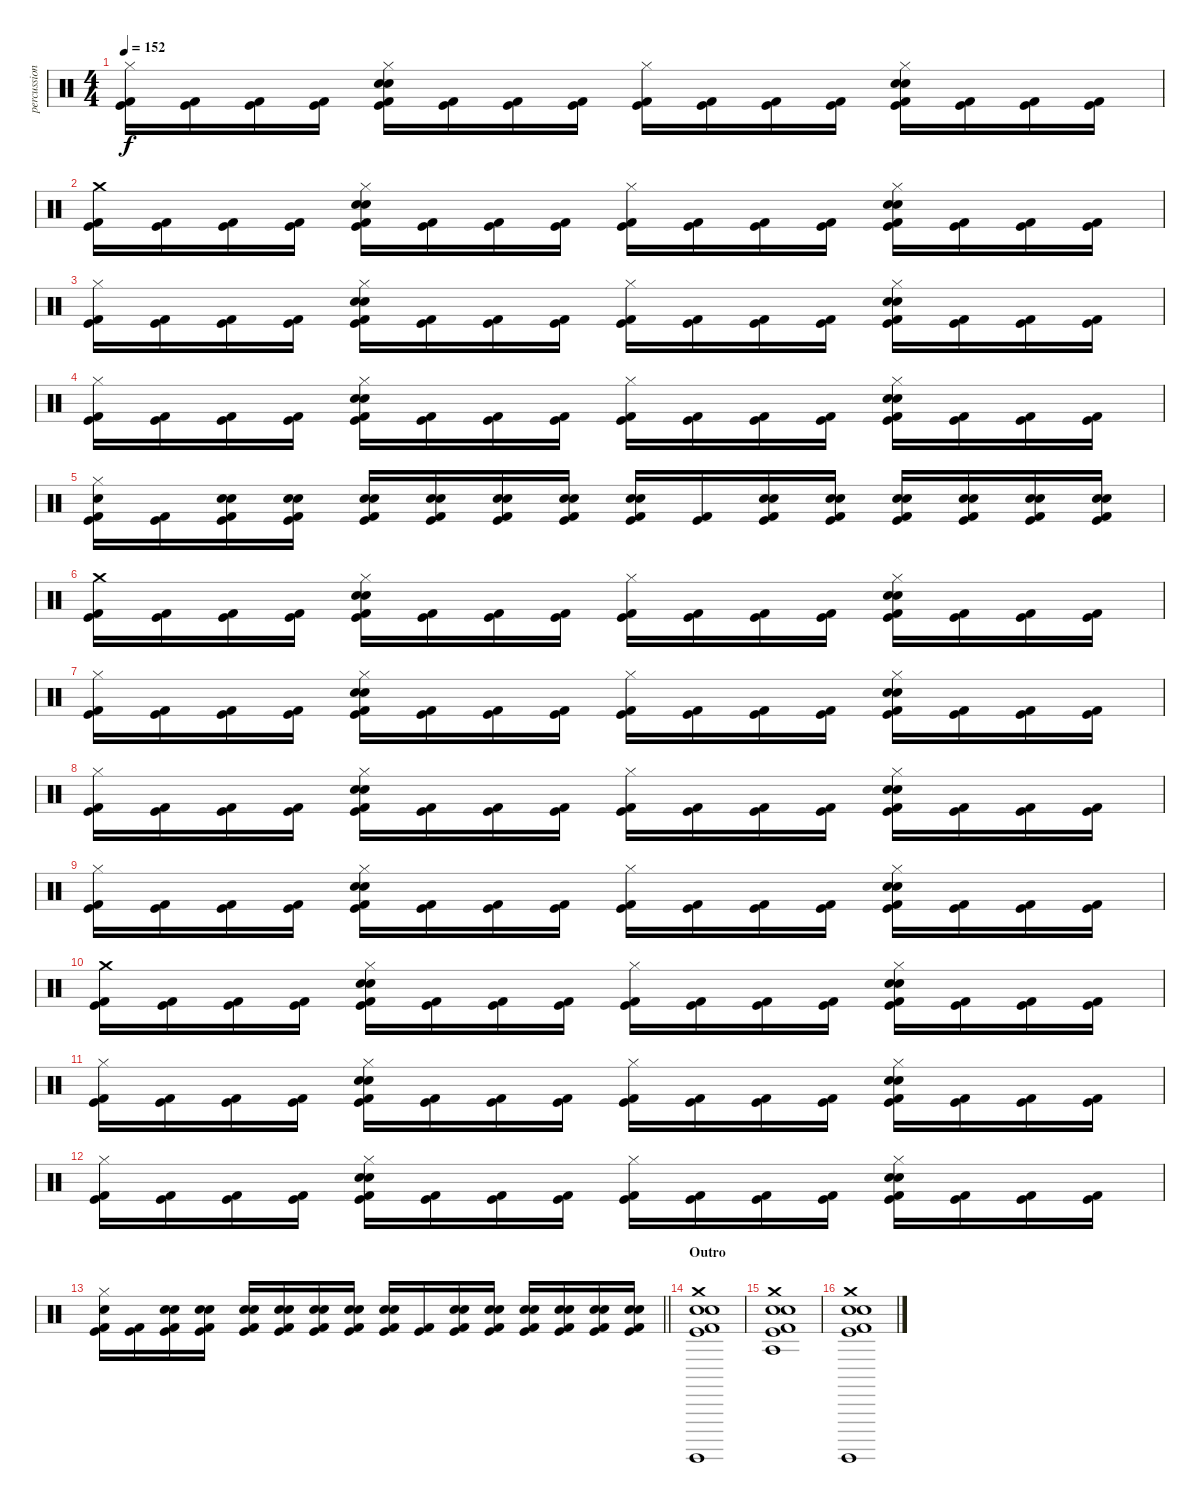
\track ("percussion" "percussion") {instrument percussion}
\staff {score}
\articulation defaults
\ts (4 4)
\tempo 152
\clef neutral
\ks c
("Hi-Hat (closed)" "Kick (hit) 2" "Kick (hit)").16{dy f} ("Kick (hit) 2" "Kick (hit)").16 ("Kick (hit) 2" "Kick (hit)").16 ("Kick (hit) 2" "Kick (hit)").16 ("Hi-Hat (closed)" "Electric Snare (hit)" "Snare (hit) 2" "Kick (hit) 2" "Kick (hit)").16 ("Kick (hit) 2" "Kick (hit)").16 ("Kick (hit) 2" "Kick (hit)").16 ("Kick (hit) 2" "Kick (hit)").16 ("Hi-Hat (closed)" "Kick (hit) 2" "Kick (hit)").16 ("Kick (hit) 2" "Kick (hit)").16 ("Kick (hit) 2" "Kick (hit)").16 ("Kick (hit) 2" "Kick (hit)").16 ("Hi-Hat (closed)" "Electric Snare (hit)" "Snare (hit) 2" "Kick (hit) 2" "Kick (hit)").16 ("Kick (hit) 2" "Kick (hit)").16 ("Kick (hit) 2" "Kick (hit)").16 ("Kick (hit) 2" "Kick (hit)").16 |
("Crash medium (hit)" "Kick (hit) 2" "Kick (hit)").16 ("Kick (hit) 2" "Kick (hit)").16 ("Kick (hit) 2" "Kick (hit)").16 ("Kick (hit) 2" "Kick (hit)").16 ("Hi-Hat (closed)" "Electric Snare (hit)" "Snare (hit) 2" "Kick (hit) 2" "Kick (hit)").16 ("Kick (hit) 2" "Kick (hit)").16 ("Kick (hit) 2" "Kick (hit)").16 ("Kick (hit) 2" "Kick (hit)").16 ("Hi-Hat (closed)" "Kick (hit) 2" "Kick (hit)").16 ("Kick (hit) 2" "Kick (hit)").16 ("Kick (hit) 2" "Kick (hit)").16 ("Kick (hit) 2" "Kick (hit)").16 ("Hi-Hat (closed)" "Electric Snare (hit)" "Snare (hit) 2" "Kick (hit) 2" "Kick (hit)").16 ("Kick (hit) 2" "Kick (hit)").16 ("Kick (hit) 2" "Kick (hit)").16 ("Kick (hit) 2" "Kick (hit)").16 |
("Hi-Hat (closed)" "Kick (hit) 2" "Kick (hit)").16 ("Kick (hit) 2" "Kick (hit)").16 ("Kick (hit) 2" "Kick (hit)").16 ("Kick (hit) 2" "Kick (hit)").16 ("Hi-Hat (closed)" "Electric Snare (hit)" "Snare (hit) 2" "Kick (hit) 2" "Kick (hit)").16 ("Kick (hit) 2" "Kick (hit)").16 ("Kick (hit) 2" "Kick (hit)").16 ("Kick (hit) 2" "Kick (hit)").16 ("Hi-Hat (closed)" "Kick (hit) 2" "Kick (hit)").16 ("Kick (hit) 2" "Kick (hit)").16 ("Kick (hit) 2" "Kick (hit)").16 ("Kick (hit) 2" "Kick (hit)").16 ("Hi-Hat (closed)" "Electric Snare (hit)" "Snare (hit) 2" "Kick (hit) 2" "Kick (hit)").16 ("Kick (hit) 2" "Kick (hit)").16 ("Kick (hit) 2" "Kick (hit)").16 ("Kick (hit) 2" "Kick (hit)").16 |
("Hi-Hat (closed)" "Kick (hit) 2" "Kick (hit)").16 ("Kick (hit) 2" "Kick (hit)").16 ("Kick (hit) 2" "Kick (hit)").16 ("Kick (hit) 2" "Kick (hit)").16 ("Hi-Hat (closed)" "Electric Snare (hit)" "Snare (hit) 2" "Kick (hit) 2" "Kick (hit)").16 ("Kick (hit) 2" "Kick (hit)").16 ("Kick (hit) 2" "Kick (hit)").16 ("Kick (hit) 2" "Kick (hit)").16 ("Hi-Hat (closed)" "Kick (hit) 2" "Kick (hit)").16 ("Kick (hit) 2" "Kick (hit)").16 ("Kick (hit) 2" "Kick (hit)").16 ("Kick (hit) 2" "Kick (hit)").16 ("Hi-Hat (closed)" "Electric Snare (hit)" "Snare (hit) 2" "Kick (hit) 2" "Kick (hit)").16 ("Kick (hit) 2" "Kick (hit)").16 ("Kick (hit) 2" "Kick (hit)").16 ("Kick (hit) 2" "Kick (hit)").16 |
("Hi-Hat (closed)" "Electric Snare (hit)" "Kick (hit) 2" "Kick (hit)").16 ("Kick (hit) 2" "Kick (hit)").16 ("Electric Snare (hit)" "Snare (hit) 2" "Kick (hit) 2" "Kick (hit)").16 ("Electric Snare (hit)" "Snare (hit) 2" "Kick (hit) 2" "Kick (hit)").16 ("Electric Snare (hit)" "Snare (hit) 2" "Kick (hit) 2" "Kick (hit)").16 ("Electric Snare (hit)" "Snare (hit) 2" "Kick (hit) 2" "Kick (hit)").16 ("Electric Snare (hit)" "Snare (hit) 2" "Kick (hit) 2" "Kick (hit)").16 ("Electric Snare (hit)" "Snare (hit) 2" "Kick (hit) 2" "Kick (hit)").16 ("Electric Snare (hit)" "Snare (hit) 2" "Kick (hit) 2" "Kick (hit)").16 ("Kick (hit) 2" "Kick (hit)").16 ("Electric Snare (hit)" "Snare (hit) 2" "Kick (hit) 2" "Kick (hit)").16 ("Electric Snare (hit)" "Snare (hit) 2" "Kick (hit) 2" "Kick (hit)").16 ("Electric Snare (hit)" "Snare (hit) 2" "Kick (hit) 2" "Kick (hit)").16 ("Electric Snare (hit)" "Snare (hit) 2" "Kick (hit) 2" "Kick (hit)").16 ("Electric Snare (hit)" "Snare (hit) 2" "Kick (hit) 2" "Kick (hit)").16 ("Electric Snare (hit)" "Snare (hit) 2" "Kick (hit) 2" "Kick (hit)").16 |
("Crash medium (hit)" "Kick (hit) 2" "Kick (hit)").16 ("Kick (hit) 2" "Kick (hit)").16 ("Kick (hit) 2" "Kick (hit)").16 ("Kick (hit) 2" "Kick (hit)").16 ("Hi-Hat (closed)" "Electric Snare (hit)" "Snare (hit) 2" "Kick (hit) 2" "Kick (hit)").16 ("Kick (hit) 2" "Kick (hit)").16 ("Kick (hit) 2" "Kick (hit)").16 ("Kick (hit) 2" "Kick (hit)").16 ("Hi-Hat (closed)" "Kick (hit) 2" "Kick (hit)").16 ("Kick (hit) 2" "Kick (hit)").16 ("Kick (hit) 2" "Kick (hit)").16 ("Kick (hit) 2" "Kick (hit)").16 ("Hi-Hat (closed)" "Electric Snare (hit)" "Snare (hit) 2" "Kick (hit) 2" "Kick (hit)").16 ("Kick (hit) 2" "Kick (hit)").16 ("Kick (hit) 2" "Kick (hit)").16 ("Kick (hit) 2" "Kick (hit)").16 |
("Hi-Hat (closed)" "Kick (hit) 2" "Kick (hit)").16 ("Kick (hit) 2" "Kick (hit)").16 ("Kick (hit) 2" "Kick (hit)").16 ("Kick (hit) 2" "Kick (hit)").16 ("Hi-Hat (closed)" "Electric Snare (hit)" "Snare (hit) 2" "Kick (hit) 2" "Kick (hit)").16 ("Kick (hit) 2" "Kick (hit)").16 ("Kick (hit) 2" "Kick (hit)").16 ("Kick (hit) 2" "Kick (hit)").16 ("Hi-Hat (closed)" "Kick (hit) 2" "Kick (hit)").16 ("Kick (hit) 2" "Kick (hit)").16 ("Kick (hit) 2" "Kick (hit)").16 ("Kick (hit) 2" "Kick (hit)").16 ("Hi-Hat (closed)" "Electric Snare (hit)" "Snare (hit) 2" "Kick (hit) 2" "Kick (hit)").16 ("Kick (hit) 2" "Kick (hit)").16 ("Kick (hit) 2" "Kick (hit)").16 ("Kick (hit) 2" "Kick (hit)").16 |
("Hi-Hat (closed)" "Kick (hit) 2" "Kick (hit)").16 ("Kick (hit) 2" "Kick (hit)").16 ("Kick (hit) 2" "Kick (hit)").16 ("Kick (hit) 2" "Kick (hit)").16 ("Hi-Hat (closed)" "Electric Snare (hit)" "Snare (hit) 2" "Kick (hit) 2" "Kick (hit)").16 ("Kick (hit) 2" "Kick (hit)").16 ("Kick (hit) 2" "Kick (hit)").16 ("Kick (hit) 2" "Kick (hit)").16 ("Hi-Hat (closed)" "Kick (hit) 2" "Kick (hit)").16 ("Kick (hit) 2" "Kick (hit)").16 ("Kick (hit) 2" "Kick (hit)").16 ("Kick (hit) 2" "Kick (hit)").16 ("Hi-Hat (closed)" "Electric Snare (hit)" "Snare (hit) 2" "Kick (hit) 2" "Kick (hit)").16 ("Kick (hit) 2" "Kick (hit)").16 ("Kick (hit) 2" "Kick (hit)").16 ("Kick (hit) 2" "Kick (hit)").16 |
("Hi-Hat (closed)" "Kick (hit) 2" "Kick (hit)").16 ("Kick (hit) 2" "Kick (hit)").16 ("Kick (hit) 2" "Kick (hit)").16 ("Kick (hit) 2" "Kick (hit)").16 ("Hi-Hat (closed)" "Electric Snare (hit)" "Snare (hit) 2" "Kick (hit) 2" "Kick (hit)").16 ("Kick (hit) 2" "Kick (hit)").16 ("Kick (hit) 2" "Kick (hit)").16 ("Kick (hit) 2" "Kick (hit)").16 ("Hi-Hat (closed)" "Kick (hit) 2" "Kick (hit)").16 ("Kick (hit) 2" "Kick (hit)").16 ("Kick (hit) 2" "Kick (hit)").16 ("Kick (hit) 2" "Kick (hit)").16 ("Hi-Hat (closed)" "Electric Snare (hit)" "Snare (hit) 2" "Kick (hit) 2" "Kick (hit)").16 ("Kick (hit) 2" "Kick (hit)").16 ("Kick (hit) 2" "Kick (hit)").16 ("Kick (hit) 2" "Kick (hit)").16 |
("Crash medium (hit)" "Kick (hit) 2" "Kick (hit)").16 ("Kick (hit) 2" "Kick (hit)").16 ("Kick (hit) 2" "Kick (hit)").16 ("Kick (hit) 2" "Kick (hit)").16 ("Hi-Hat (closed)" "Electric Snare (hit)" "Snare (hit) 2" "Kick (hit) 2" "Kick (hit)").16 ("Kick (hit) 2" "Kick (hit)").16 ("Kick (hit) 2" "Kick (hit)").16 ("Kick (hit) 2" "Kick (hit)").16 ("Hi-Hat (closed)" "Kick (hit) 2" "Kick (hit)").16 ("Kick (hit) 2" "Kick (hit)").16 ("Kick (hit) 2" "Kick (hit)").16 ("Kick (hit) 2" "Kick (hit)").16 ("Hi-Hat (closed)" "Electric Snare (hit)" "Snare (hit) 2" "Kick (hit) 2" "Kick (hit)").16 ("Kick (hit) 2" "Kick (hit)").16 ("Kick (hit) 2" "Kick (hit)").16 ("Kick (hit) 2" "Kick (hit)").16 |
("Hi-Hat (closed)" "Kick (hit) 2" "Kick (hit)").16 ("Kick (hit) 2" "Kick (hit)").16 ("Kick (hit) 2" "Kick (hit)").16 ("Kick (hit) 2" "Kick (hit)").16 ("Hi-Hat (closed)" "Electric Snare (hit)" "Snare (hit) 2" "Kick (hit) 2" "Kick (hit)").16 ("Kick (hit) 2" "Kick (hit)").16 ("Kick (hit) 2" "Kick (hit)").16 ("Kick (hit) 2" "Kick (hit)").16 ("Hi-Hat (closed)" "Kick (hit) 2" "Kick (hit)").16 ("Kick (hit) 2" "Kick (hit)").16 ("Kick (hit) 2" "Kick (hit)").16 ("Kick (hit) 2" "Kick (hit)").16 ("Hi-Hat (closed)" "Electric Snare (hit)" "Snare (hit) 2" "Kick (hit) 2" "Kick (hit)").16 ("Kick (hit) 2" "Kick (hit)").16 ("Kick (hit) 2" "Kick (hit)").16 ("Kick (hit) 2" "Kick (hit)").16 |
("Hi-Hat (closed)" "Kick (hit) 2" "Kick (hit)").16 ("Kick (hit) 2" "Kick (hit)").16 ("Kick (hit) 2" "Kick (hit)").16 ("Kick (hit) 2" "Kick (hit)").16 ("Hi-Hat (closed)" "Electric Snare (hit)" "Snare (hit) 2" "Kick (hit) 2" "Kick (hit)").16 ("Kick (hit) 2" "Kick (hit)").16 ("Kick (hit) 2" "Kick (hit)").16 ("Kick (hit) 2" "Kick (hit)").16 ("Hi-Hat (closed)" "Kick (hit) 2" "Kick (hit)").16 ("Kick (hit) 2" "Kick (hit)").16 ("Kick (hit) 2" "Kick (hit)").16 ("Kick (hit) 2" "Kick (hit)").16 ("Hi-Hat (closed)" "Electric Snare (hit)" "Snare (hit) 2" "Kick (hit) 2" "Kick (hit)").16 ("Kick (hit) 2" "Kick (hit)").16 ("Kick (hit) 2" "Kick (hit)").16 ("Kick (hit) 2" "Kick (hit)").16 |
\barLineRight lightlight
("Hi-Hat (closed)" "Electric Snare (hit)" "Kick (hit) 2" "Kick (hit)").16 ("Kick (hit) 2" "Kick (hit)").16 ("Electric Snare (hit)" "Snare (hit) 2" "Kick (hit) 2" "Kick (hit)").16 ("Electric Snare (hit)" "Snare (hit) 2" "Kick (hit) 2" "Kick (hit)").16 ("Electric Snare (hit)" "Snare (hit) 2" "Kick (hit) 2" "Kick (hit)").16 ("Electric Snare (hit)" "Snare (hit) 2" "Kick (hit) 2" "Kick (hit)").16 ("Electric Snare (hit)" "Snare (hit) 2" "Kick (hit) 2" "Kick (hit)").16 ("Electric Snare (hit)" "Snare (hit) 2" "Kick (hit) 2" "Kick (hit)").16 ("Electric Snare (hit)" "Snare (hit) 2" "Kick (hit) 2" "Kick (hit)").16 ("Kick (hit) 2" "Kick (hit)").16 ("Electric Snare (hit)" "Snare (hit) 2" "Kick (hit) 2" "Kick (hit)").16 ("Electric Snare (hit)" "Snare (hit) 2" "Kick (hit) 2" "Kick (hit)").16 ("Electric Snare (hit)" "Snare (hit) 2" "Kick (hit) 2" "Kick (hit)").16 ("Electric Snare (hit)" "Snare (hit) 2" "Kick (hit) 2" "Kick (hit)").16 ("Electric Snare (hit)" "Snare (hit) 2" "Kick (hit) 2" "Kick (hit)").16 ("Electric Snare (hit)" "Snare (hit) 2" "Kick (hit) 2" "Kick (hit)").16 |
\section ("" "Outro")
("Crash medium (hit)" "Electric Snare (hit)" "Snare (hit) 2" "Surdo (hit)" "Kick (hit)" "Kick (hit) 2").1 |
("Crash medium (hit)" "Electric Snare (hit)" "Snare (hit) 2" "Agogo tow (hit)" "Kick (hit)" "Kick (hit) 2").1 |
("Crash medium (hit)" "Electric Snare (hit)" "Snare (hit) 2" "Surdo (hit)" "Kick (hit)" "Kick (hit) 2").1
